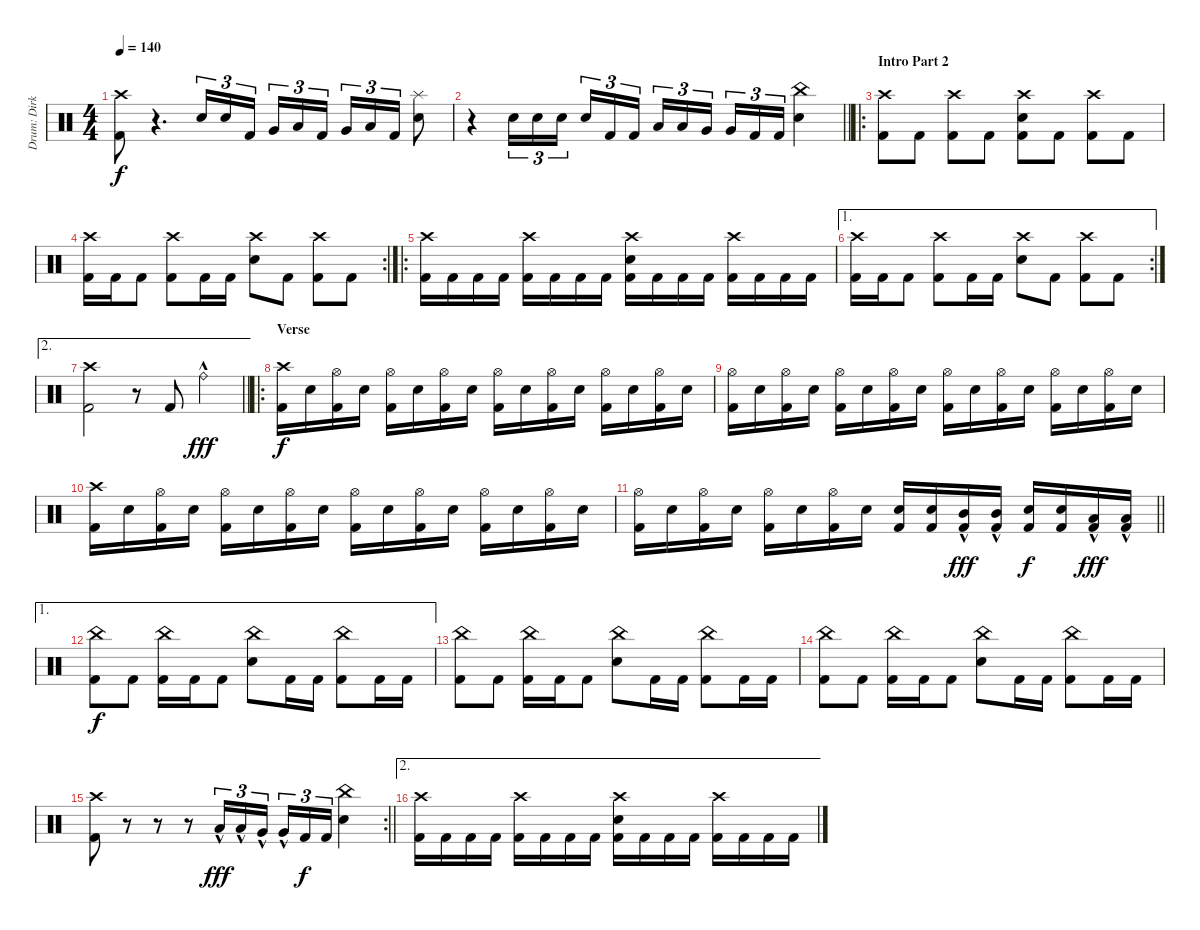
\track ("Drum: Dirk" "Drum: Dirk") {instrument percussion}
\staff {score}
\articulation defaults
\ts (4 4)
\tempo 140
\clef neutral
\ks c
("Crash high (hit)" "Kick (hit) 2").8{dy f} r.4{d volume 0} "Electric Snare (hit)".16{tu (3 2) volume 12} "Electric Snare (hit)".16{tu (3 2)} "Kick (hit) 2".16{tu (3 2) beam splitsecondary} "Very Low Tom (hit)".16{tu (3 2)} "Low Tom (hit)".16{tu (3 2)} "Kick (hit) 2".16{tu (3 2)} "Very Low Tom (hit)".16{tu (3 2)} "Low Tom (hit)".16{tu (3 2)} "Kick (hit) 2".16{tu (3 2)} ("Splash (hit)" "Electric Snare (hit)").8 |
\barLineRight lightlight
r.4 "Electric Snare (hit)".16{tu (3 2)} "Electric Snare (hit)".16{tu (3 2)} "Electric Snare (hit)".16{tu (3 2) beam splitsecondary} "Electric Snare (hit)".16{tu (3 2)} "Kick (hit) 2".16{tu (3 2)} "Kick (hit) 2".16{tu (3 2)} "Low Tom (hit)".16{tu (3 2)} "Low Tom (hit)".16{tu (3 2)} "Very Low Tom (hit)".16{tu (3 2) beam splitsecondary} "Very Low Tom (hit)".16{tu (3 2)} "Kick (hit) 2".16{tu (3 2)} "Kick (hit) 2".16{tu (3 2)} ("China (hit)" "Electric Snare (hit)").4 |
\ro
\section ("" "Intro Part 2")
("Crash high (hit)" "Kick (hit) 2").8 "Kick (hit) 2".8 ("Crash high (hit)" "Kick (hit) 2").8 "Kick (hit) 2".8 ("Crash high (hit)" "Electric Snare (hit)" "Kick (hit) 2").8 "Kick (hit) 2".8 ("Crash high (hit)" "Kick (hit) 2").8 "Kick (hit) 2".8 |
\rc 2
("Crash high (hit)" "Kick (hit) 2").16 "Kick (hit) 2".16 "Kick (hit) 2".8 ("Crash high (hit)" "Kick (hit) 2").8 "Kick (hit) 2".16 "Kick (hit) 2".16 ("Crash high (hit)" "Electric Snare (hit)").8 "Kick (hit) 2".8 ("Crash high (hit)" "Kick (hit) 2").8 "Kick (hit) 2".8 |
\ro
("Crash high (hit)" "Kick (hit) 2").16 "Kick (hit) 2".16 "Kick (hit) 2".16 "Kick (hit) 2".16 ("Crash high (hit)" "Kick (hit) 2").16 "Kick (hit) 2".16 "Kick (hit) 2".16 "Kick (hit) 2".16 ("Crash high (hit)" "Electric Snare (hit)" "Kick (hit) 2").16 "Kick (hit) 2".16 "Kick (hit) 2".16 "Kick (hit) 2".16 ("Crash high (hit)" "Kick (hit) 2").16 "Kick (hit) 2".16 "Kick (hit) 2".16 "Kick (hit) 2".16 |
\ae 1
\rc 2
("Crash high (hit)" "Kick (hit) 2").16 "Kick (hit) 2".16 "Kick (hit) 2".8 ("Crash high (hit)" "Kick (hit) 2").8 "Kick (hit) 2".16 "Kick (hit) 2".16 ("Crash high (hit)" "Electric Snare (hit)").8 "Kick (hit) 2".8 ("Crash high (hit)" "Kick (hit) 2").8 "Kick (hit) 2".8 |
\ae 2
\barLineRight lightlight
("Crash high (hit)" "Kick (hit) 2").2 r.8 "Kick (hit) 2".8 "Ride (bell)"{hac}.4{dy fff} |
\ro
\section ("" "Verse")
("Crash high (hit)" "Kick (hit) 2").16{dy f} "Electric Snare (hit)".16 ("Hi-Hat (open)" "Kick (hit) 2").16 "Electric Snare (hit)".16 ("Hi-Hat (open)" "Kick (hit) 2").16 "Electric Snare (hit)".16 ("Hi-Hat (open)" "Kick (hit) 2").16 "Electric Snare (hit)".16 ("Hi-Hat (open)" "Kick (hit) 2").16 "Electric Snare (hit)".16 ("Hi-Hat (open)" "Kick (hit) 2").16 "Electric Snare (hit)".16 ("Hi-Hat (open)" "Kick (hit) 2").16 "Electric Snare (hit)".16 ("Hi-Hat (open)" "Kick (hit) 2").16 "Electric Snare (hit)".16 |
("Hi-Hat (open)" "Kick (hit) 2").16 "Electric Snare (hit)".16 ("Hi-Hat (open)" "Kick (hit) 2").16 "Electric Snare (hit)".16 ("Hi-Hat (open)" "Kick (hit) 2").16 "Electric Snare (hit)".16 ("Hi-Hat (open)" "Kick (hit) 2").16 "Electric Snare (hit)".16 ("Hi-Hat (open)" "Kick (hit) 2").16 "Electric Snare (hit)".16 ("Hi-Hat (open)" "Kick (hit) 2").16 "Electric Snare (hit)".16 ("Hi-Hat (open)" "Kick (hit) 2").16 "Electric Snare (hit)".16 ("Hi-Hat (open)" "Kick (hit) 2").16 "Electric Snare (hit)".16 |
("Crash high (hit)" "Kick (hit) 2").16 "Electric Snare (hit)".16 ("Hi-Hat (open)" "Kick (hit) 2").16 "Electric Snare (hit)".16 ("Hi-Hat (open)" "Kick (hit) 2").16 "Electric Snare (hit)".16 ("Hi-Hat (open)" "Kick (hit) 2").16 "Electric Snare (hit)".16 ("Hi-Hat (open)" "Kick (hit) 2").16 "Electric Snare (hit)".16 ("Hi-Hat (open)" "Kick (hit) 2").16 "Electric Snare (hit)".16 ("Hi-Hat (open)" "Kick (hit) 2").16 "Electric Snare (hit)".16 ("Hi-Hat (open)" "Kick (hit) 2").16 "Electric Snare (hit)".16 |
\barLineRight lightlight
("Hi-Hat (open)" "Kick (hit) 2").16 "Electric Snare (hit)".16 ("Hi-Hat (open)" "Kick (hit) 2").16 "Electric Snare (hit)".16 ("Hi-Hat (open)" "Kick (hit) 2").16 "Electric Snare (hit)".16 ("Hi-Hat (open)" "Kick (hit) 2").16 "Electric Snare (hit)".16 ("Electric Snare (hit)" "Kick (hit) 2").16 ("Electric Snare (hit)" "Kick (hit) 2").16 ("Mid Tom (hit)"{hac} "Kick (hit) 2").16{dy fff} ("Mid Tom (hit)"{hac} "Kick (hit) 2").16 ("Electric Snare (hit)" "Kick (hit) 2").16{dy f} ("Electric Snare (hit)" "Kick (hit) 2").16 ("Low Tom (hit)"{hac} "Kick (hit) 2").16{dy fff} ("Low Tom (hit)"{hac} "Kick (hit) 2").16 |
\ae 1
\section ("" "")
("China (hit)" "Kick (hit) 2").8{dy f} "Kick (hit) 2".8 ("China (hit)" "Kick (hit) 2").16 "Kick (hit) 2".16 "Kick (hit) 2".8 ("China (hit)" "Electric Snare (hit)").8 "Kick (hit) 2".16 "Kick (hit) 2".16 ("China (hit)" "Kick (hit) 2").8 "Kick (hit) 2".16 "Kick (hit) 2".16 |
("China (hit)" "Kick (hit) 2").8 "Kick (hit) 2".8 ("China (hit)" "Kick (hit) 2").16 "Kick (hit) 2".16 "Kick (hit) 2".8 ("China (hit)" "Electric Snare (hit)").8 "Kick (hit) 2".16 "Kick (hit) 2".16 ("China (hit)" "Kick (hit) 2").8 "Kick (hit) 2".16 "Kick (hit) 2".16 |
("China (hit)" "Kick (hit) 2").8 "Kick (hit) 2".8 ("China (hit)" "Kick (hit) 2").16 "Kick (hit) 2".16 "Kick (hit) 2".8 ("China (hit)" "Electric Snare (hit)").8 "Kick (hit) 2".16 "Kick (hit) 2".16 ("China (hit)" "Kick (hit) 2").8 "Kick (hit) 2".16 "Kick (hit) 2".16 |
\rc 2
\barLineRight lightlight
("Crash high (hit)" "Kick (hit) 2").8 r.8 r.8 r.8 "Low Tom (hit)"{hac}.16{tu (3 2) dy fff} "Low Tom (hit)"{hac}.16{tu (3 2)} "Very Low Tom (hit)"{hac}.16{tu (3 2) beam splitsecondary} "Very Low Tom (hit)"{hac}.16{tu (3 2)} "Kick (hit) 2".16{tu (3 2) dy f} "Kick (hit) 2".16{tu (3 2)} ("China (hit)" "Electric Snare (hit)").4 |
\ae 2
\section ("" "")
("Crash high (hit)" "Kick (hit) 2").16 "Kick (hit) 2".16 "Kick (hit) 2".16 "Kick (hit) 2".16 ("Crash high (hit)" "Kick (hit) 2").16 "Kick (hit) 2".16 "Kick (hit) 2".16 "Kick (hit) 2".16 ("Crash high (hit)" "Electric Snare (hit)" "Kick (hit) 2").16 "Kick (hit) 2".16 "Kick (hit) 2".16 "Kick (hit) 2".16 ("Crash high (hit)" "Kick (hit) 2").16 "Kick (hit) 2".16 "Kick (hit) 2".16 "Kick (hit) 2".16
